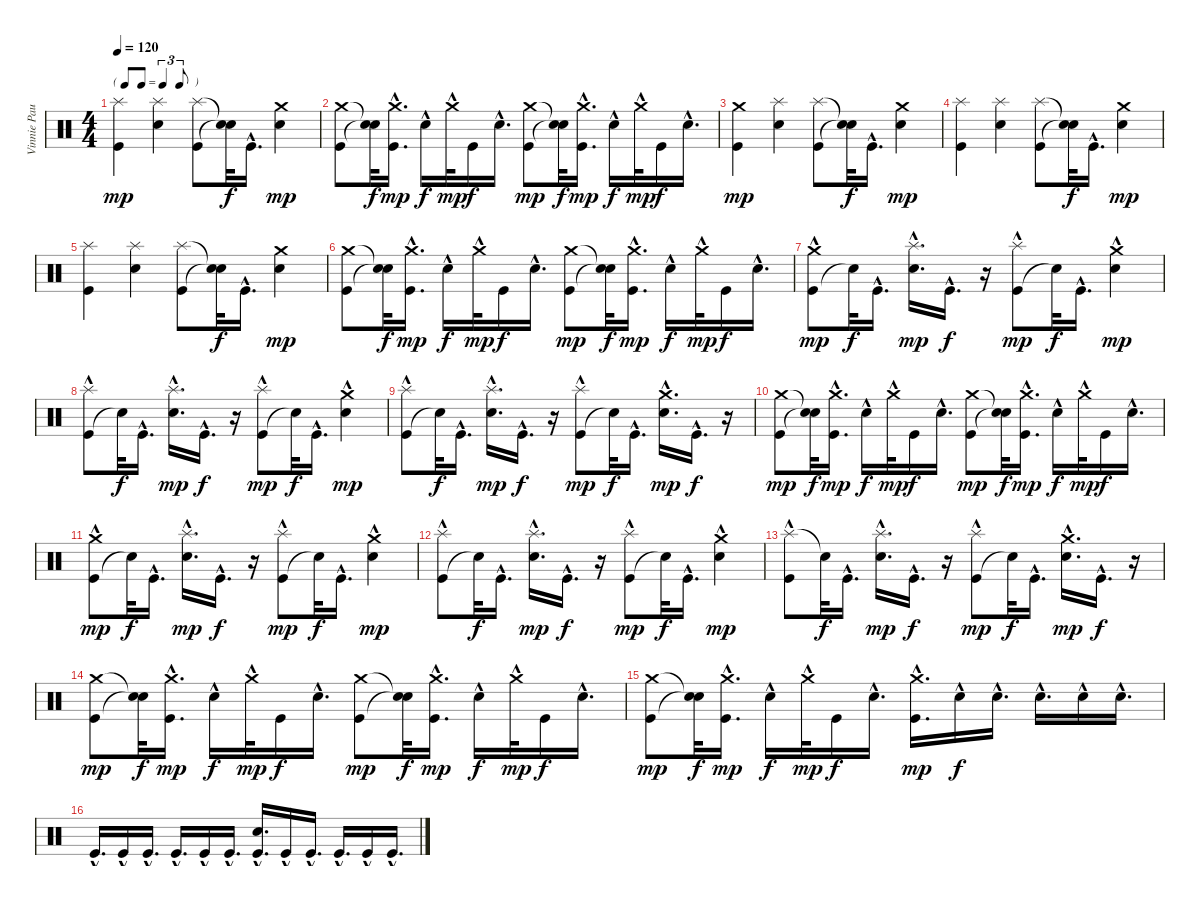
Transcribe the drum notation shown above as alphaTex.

\track ("Vinnie Paul (Drums)" "Vinnie Pau") {instrument percussion}
\staff {score}
\articulation defaults
\ts (4 4)
\tf triplet8th
\tempo 120
\clef neutral
\ks c
("Kick (hit)" "Splash (hit)").4{dy mp} ("Electric Snare (hit)" "Splash (hit)").4 ("Kick (hit)" "Splash (hit)").8 ("Snare (hit)"{t} "Snare (hit)"{t}).32{dy f} "Kick (hit)"{hac}.16{d} ("Electric Snare (hit)" "Crash medium (hit)").4{dy mp} |
("Crash medium (hit)" "Kick (hit)").8 ("Snare (hit)"{t} "Snare (hit)"{t}).32{dy f} ("Crash medium (hit)"{hac} "Kick (hit)").16{d dy mp} "Electric Snare (hit)"{hac}.16{dy f} "Crash medium (hit)"{hac}.32{dy mp} "Kick (hit)".16{dy f} "Electric Snare (hit)"{hac}.16{d} ("Crash medium (hit)" "Kick (hit)").8{dy mp} ("Snare (hit)"{t} "Snare (hit)"{t}).32{dy f} ("Crash medium (hit)"{hac} "Kick (hit)").16{d dy mp} "Electric Snare (hit)"{hac}.16{dy f} "Crash medium (hit)"{hac}.32{dy mp} "Kick (hit)".16{dy f} "Electric Snare (hit)"{hac}.16{d} |
("Kick (hit)" "Crash medium (hit)").4{dy mp} ("Electric Snare (hit)" "Splash (hit)").4 ("Kick (hit)" "Splash (hit)").8 ("Snare (hit)"{t} "Snare (hit)"{t}).32{dy f} "Kick (hit)"{hac}.16{d} ("Electric Snare (hit)" "Crash medium (hit)").4{dy mp} |
("Kick (hit)" "Splash (hit)").4 ("Electric Snare (hit)" "Splash (hit)").4 ("Kick (hit)" "Splash (hit)").8 ("Snare (hit)"{t} "Snare (hit)"{t}).32{dy f} "Kick (hit)"{hac}.16{d} ("Electric Snare (hit)" "Crash medium (hit)").4{dy mp} |
("Kick (hit)" "Splash (hit)").4 ("Electric Snare (hit)" "Splash (hit)").4 ("Kick (hit)" "Splash (hit)").8 ("Snare (hit)"{t} "Snare (hit)"{t}).32{dy f} "Kick (hit)"{hac}.16{d} ("Electric Snare (hit)" "Crash medium (hit)").4{dy mp} |
("Crash medium (hit)" "Kick (hit)").8 ("Snare (hit)"{t} "Snare (hit)"{t}).32{dy f} ("Crash medium (hit)"{hac} "Kick (hit)").16{d dy mp} "Electric Snare (hit)"{hac}.16{dy f} "Crash medium (hit)"{hac}.32{dy mp} "Kick (hit)".16{dy f} "Electric Snare (hit)"{hac}.16{d} ("Crash medium (hit)" "Kick (hit)").8{dy mp} ("Snare (hit)"{t} "Snare (hit)"{t}).32{dy f} ("Crash medium (hit)"{hac} "Kick (hit)").16{d dy mp} "Electric Snare (hit)"{hac}.16{dy f} "Crash medium (hit)"{hac}.32{dy mp} "Kick (hit)".16{dy f} "Electric Snare (hit)"{hac}.16{d} |
("Kick (hit)"{hac} "Crash medium (hit)").8{dy mp} "Snare (hit)"{t}.32{dy f} "Kick (hit)"{hac}.16{d} ("Electric Snare (hit)"{hac} "Splash (hit)").16{d dy mp} "Kick (hit)"{hac}.16{d dy f} r.16 ("Kick (hit)"{hac} "Splash (hit)").8{dy mp} "Snare (hit)"{t}.32{dy f} "Kick (hit)"{hac}.16{d} ("Electric Snare (hit)"{hac} "Crash medium (hit)").4{dy mp} |
("Kick (hit)"{hac} "Splash (hit)").8 "Snare (hit)"{t}.32{dy f} "Kick (hit)"{hac}.16{d} ("Electric Snare (hit)"{hac} "Splash (hit)").16{d dy mp} "Kick (hit)"{hac}.16{d dy f} r.16 ("Kick (hit)"{hac} "Splash (hit)").8{dy mp} "Snare (hit)"{t}.32{dy f} "Kick (hit)"{hac}.16{d} ("Electric Snare (hit)"{hac} "Crash medium (hit)").4{dy mp} |
("Kick (hit)"{hac} "Splash (hit)").8 "Snare (hit)"{t}.32{dy f} "Kick (hit)"{hac}.16{d} ("Electric Snare (hit)"{hac} "Splash (hit)").16{d dy mp} "Kick (hit)"{hac}.16{d dy f} r.16 ("Kick (hit)"{hac} "Splash (hit)").8{dy mp} "Snare (hit)"{t}.32{dy f} "Kick (hit)"{hac}.16{d} ("Electric Snare (hit)"{hac} "Crash medium (hit)").16{d dy mp} "Kick (hit)"{hac}.16{d dy f} r.16 |
("Crash medium (hit)" "Kick (hit)").8{dy mp} ("Snare (hit)"{t} "Snare (hit)"{t}).32{dy f} ("Crash medium (hit)"{hac} "Kick (hit)").16{d dy mp} "Electric Snare (hit)"{hac}.16{dy f} "Crash medium (hit)"{hac}.32{dy mp} "Kick (hit)".16{dy f} "Electric Snare (hit)"{hac}.16{d} ("Crash medium (hit)" "Kick (hit)").8{dy mp} ("Snare (hit)"{t} "Snare (hit)"{t}).32{dy f} ("Crash medium (hit)"{hac} "Kick (hit)").16{d dy mp} "Electric Snare (hit)"{hac}.16{dy f} "Crash medium (hit)"{hac}.32{dy mp} "Kick (hit)".16{dy f} "Electric Snare (hit)"{hac}.16{d} |
("Kick (hit)"{hac} "Crash medium (hit)").8{dy mp} "Snare (hit)"{t}.32{dy f} "Kick (hit)"{hac}.16{d} ("Electric Snare (hit)"{hac} "Splash (hit)").16{d dy mp} "Kick (hit)"{hac}.16{d dy f} r.16 ("Kick (hit)"{hac} "Splash (hit)").8{dy mp} "Snare (hit)"{t}.32{dy f} "Kick (hit)"{hac}.16{d} ("Crash medium (hit)" "Electric Snare (hit)"{hac}).4{dy mp} |
("Kick (hit)"{hac} "Splash (hit)").8 "Snare (hit)"{t}.32{dy f} "Kick (hit)"{hac}.16{d} ("Electric Snare (hit)"{hac} "Splash (hit)").16{d dy mp} "Kick (hit)"{hac}.16{d dy f} r.16 ("Kick (hit)"{hac} "Splash (hit)").8{dy mp} "Snare (hit)"{t}.32{dy f} "Kick (hit)"{hac}.16{d} ("Electric Snare (hit)"{hac} "Crash medium (hit)").4{dy mp} |
("Splash (hit)" "Kick (hit)"{hac}).8 "Snare (hit)"{t}.32{dy f} "Kick (hit)"{hac}.16{d} ("Electric Snare (hit)"{hac} "Splash (hit)").16{d dy mp} "Kick (hit)"{hac}.16{d dy f} r.16 ("Kick (hit)"{hac} "Splash (hit)").8{dy mp} "Snare (hit)"{t}.32{dy f} "Kick (hit)"{hac}.16{d} ("Electric Snare (hit)"{hac} "Crash medium (hit)").16{d dy mp} "Kick (hit)"{hac}.16{d dy f} r.16 |
("Crash medium (hit)" "Kick (hit)").8{dy mp} ("Snare (hit)"{t} "Snare (hit)"{t}).32{dy f} ("Crash medium (hit)"{hac} "Kick (hit)").16{d dy mp} "Electric Snare (hit)"{hac}.16{dy f} "Crash medium (hit)"{hac}.32{dy mp} "Kick (hit)".16{dy f} "Electric Snare (hit)"{hac}.16{d} ("Crash medium (hit)" "Kick (hit)").8{dy mp} ("Snare (hit)"{t} "Snare (hit)"{t}).32{dy f} ("Crash medium (hit)"{hac} "Kick (hit)").16{d dy mp} "Electric Snare (hit)"{hac}.16{dy f} "Crash medium (hit)"{hac}.32{dy mp} "Kick (hit)".16{dy f} "Electric Snare (hit)"{hac}.16{d} |
("Crash medium (hit)" "Kick (hit)").8{dy mp} ("Snare (hit)"{t} "Snare (hit)"{t}).32{dy f} ("Crash medium (hit)"{hac} "Kick (hit)").16{d dy mp} "Electric Snare (hit)"{hac}.16{dy f} "Crash medium (hit)"{hac}.32{dy mp} "Kick (hit)".16{dy f} "Electric Snare (hit)"{hac}.16{d} ("Kick (hit)" "Crash medium (hit)"{hac}).16{d dy mp} "Electric Snare (hit)"{hac}.16{dy f} "Electric Snare (hit)"{hac}.16{d} "Electric Snare (hit)"{hac}.16{d} "Electric Snare (hit)"{hac}.16 "Electric Snare (hit)"{hac}.16{d} |
"Kick (hit)"{hac}.16{d} "Kick (hit)"{hac}.16 "Kick (hit)"{hac}.16{d} "Kick (hit)"{hac}.16{d} "Kick (hit)"{hac}.16 "Kick (hit)"{hac}.16{d} ("Electric Snare (hit)" "Kick (hit)"{hac}).16{d} "Kick (hit)"{hac}.16 "Kick (hit)"{hac}.16{d} "Kick (hit)"{hac}.16{d} "Kick (hit)"{hac}.16 "Kick (hit)"{hac}.16{d}
